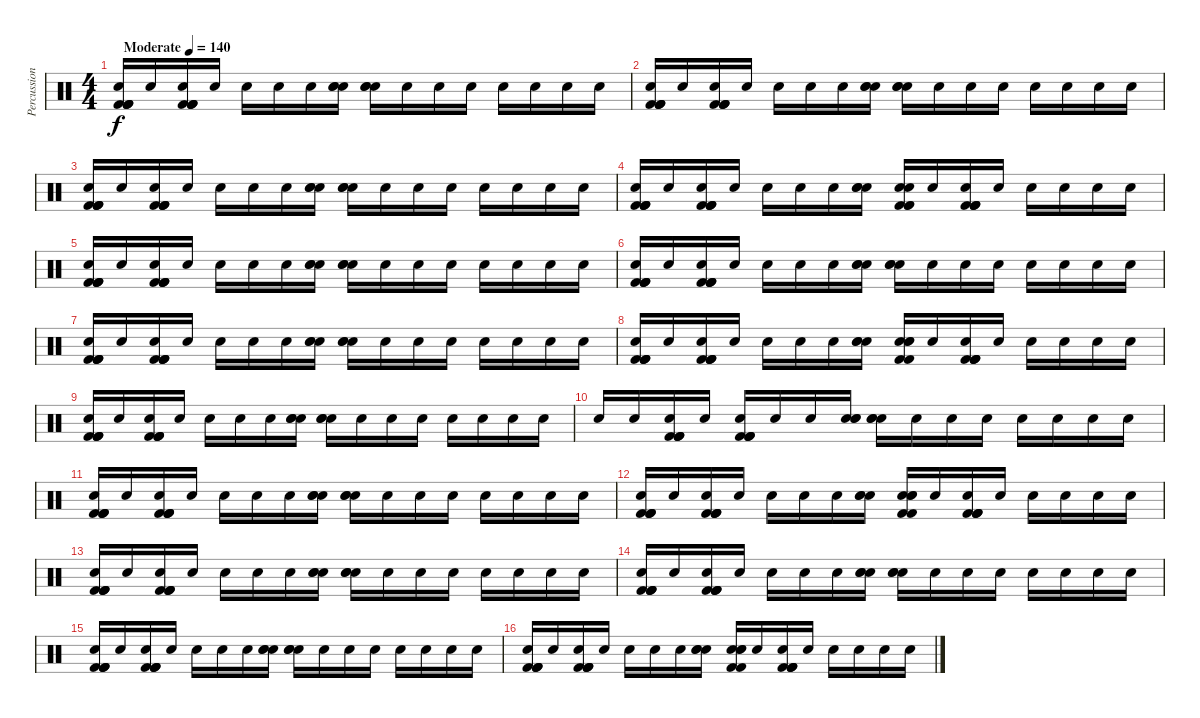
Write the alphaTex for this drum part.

\track ("Percussion" "Percussion") {instrument percussion}
\staff {score}
\articulation defaults
\ts (4 4)
\tempo (140 "Moderate")
\clef neutral
\ks c
("Kick (hit) 2" "Kick (hit) 2" "Kick (hit) 2" "Snare (hit) 2" "Kick (hit) 2").16{dy f volume 8} "Snare (hit) 2".16 ("Kick (hit) 2" "Kick (hit) 2" "Kick (hit) 2" "Snare (hit) 2" "Kick (hit) 2").16 "Snare (hit) 2".16 "Snare (hit) 2".16 "Snare (hit) 2".16 "Snare (hit) 2".16 ("Electric Snare (hit)" "Snare (hit) 2" "Snare (hit) 2").16 ("Electric Snare (hit)" "Snare (hit) 2" "Snare (hit) 2").16 "Snare (hit) 2".16 "Snare (hit) 2".16 "Snare (hit) 2".16 "Snare (hit) 2".16 "Snare (hit) 2".16 "Snare (hit) 2".16 "Snare (hit) 2".16 |
("Kick (hit) 2" "Kick (hit) 2" "Kick (hit) 2" "Snare (hit) 2" "Kick (hit) 2").16 "Snare (hit) 2".16 ("Kick (hit) 2" "Kick (hit) 2" "Kick (hit) 2" "Snare (hit) 2" "Kick (hit) 2").16 "Snare (hit) 2".16 "Snare (hit) 2".16 "Snare (hit) 2".16 "Snare (hit) 2".16 ("Electric Snare (hit)" "Snare (hit) 2" "Snare (hit) 2").16 ("Electric Snare (hit)" "Snare (hit) 2" "Snare (hit) 2").16 "Snare (hit) 2".16 "Snare (hit) 2".16 "Snare (hit) 2".16 "Snare (hit) 2".16 "Snare (hit) 2".16 "Snare (hit) 2".16 "Snare (hit) 2".16 |
("Kick (hit) 2" "Kick (hit) 2" "Kick (hit) 2" "Snare (hit) 2" "Kick (hit) 2").16 "Snare (hit) 2".16 ("Kick (hit) 2" "Kick (hit) 2" "Kick (hit) 2" "Snare (hit) 2" "Kick (hit) 2").16 "Snare (hit) 2".16 "Snare (hit) 2".16 "Snare (hit) 2".16 "Snare (hit) 2".16 ("Electric Snare (hit)" "Snare (hit) 2" "Snare (hit) 2").16 ("Electric Snare (hit)" "Snare (hit) 2" "Snare (hit) 2").16 "Snare (hit) 2".16 "Snare (hit) 2".16 "Snare (hit) 2".16 "Snare (hit) 2".16 "Snare (hit) 2".16 "Snare (hit) 2".16 "Snare (hit) 2".16 |
("Kick (hit) 2" "Kick (hit) 2" "Kick (hit) 2" "Snare (hit) 2" "Kick (hit) 2").16 "Snare (hit) 2".16 ("Kick (hit) 2" "Kick (hit) 2" "Kick (hit) 2" "Snare (hit) 2" "Kick (hit) 2").16 "Snare (hit) 2".16 "Snare (hit) 2".16 "Snare (hit) 2".16 "Snare (hit) 2".16 ("Electric Snare (hit)" "Snare (hit) 2" "Snare (hit) 2").16 ("Electric Snare (hit)" "Kick (hit) 2" "Kick (hit) 2" "Snare (hit) 2" "Kick (hit) 2").16 "Snare (hit) 2".16 ("Kick (hit) 2" "Kick (hit) 2" "Kick (hit) 2" "Snare (hit) 2" "Kick (hit) 2").16 "Snare (hit) 2".16 "Snare (hit) 2".16 "Snare (hit) 2".16 "Snare (hit) 2".16 "Snare (hit) 2".16 |
("Kick (hit) 2" "Kick (hit) 2" "Kick (hit) 2" "Snare (hit) 2" "Kick (hit) 2").16 "Snare (hit) 2".16 ("Kick (hit) 2" "Kick (hit) 2" "Kick (hit) 2" "Snare (hit) 2" "Kick (hit) 2").16 "Snare (hit) 2".16 "Snare (hit) 2".16 "Snare (hit) 2".16 "Snare (hit) 2".16 ("Electric Snare (hit)" "Snare (hit) 2" "Snare (hit) 2").16 ("Electric Snare (hit)" "Snare (hit) 2" "Snare (hit) 2").16 "Snare (hit) 2".16 "Snare (hit) 2".16 "Snare (hit) 2".16 "Snare (hit) 2".16 "Snare (hit) 2".16 "Snare (hit) 2".16 "Snare (hit) 2".16 |
("Kick (hit) 2" "Kick (hit) 2" "Kick (hit) 2" "Snare (hit) 2" "Kick (hit) 2").16 "Snare (hit) 2".16 ("Kick (hit) 2" "Kick (hit) 2" "Kick (hit) 2" "Snare (hit) 2" "Kick (hit) 2").16 "Snare (hit) 2".16 "Snare (hit) 2".16 "Snare (hit) 2".16 "Snare (hit) 2".16 ("Electric Snare (hit)" "Snare (hit) 2" "Snare (hit) 2").16 ("Electric Snare (hit)" "Snare (hit) 2" "Snare (hit) 2").16 "Snare (hit) 2".16 "Snare (hit) 2".16 "Snare (hit) 2".16 "Snare (hit) 2".16 "Snare (hit) 2".16 "Snare (hit) 2".16 "Snare (hit) 2".16 |
("Kick (hit) 2" "Kick (hit) 2" "Kick (hit) 2" "Snare (hit) 2" "Kick (hit) 2").16 "Snare (hit) 2".16 ("Kick (hit) 2" "Kick (hit) 2" "Kick (hit) 2" "Snare (hit) 2" "Kick (hit) 2").16 "Snare (hit) 2".16 "Snare (hit) 2".16 "Snare (hit) 2".16 "Snare (hit) 2".16 ("Electric Snare (hit)" "Snare (hit) 2" "Snare (hit) 2").16 ("Electric Snare (hit)" "Snare (hit) 2" "Snare (hit) 2").16 "Snare (hit) 2".16 "Snare (hit) 2".16 "Snare (hit) 2".16 "Snare (hit) 2".16 "Snare (hit) 2".16 "Snare (hit) 2".16 "Snare (hit) 2".16 |
("Kick (hit) 2" "Kick (hit) 2" "Kick (hit) 2" "Snare (hit) 2" "Kick (hit) 2").16 "Snare (hit) 2".16 ("Kick (hit) 2" "Kick (hit) 2" "Kick (hit) 2" "Snare (hit) 2" "Kick (hit) 2").16 "Snare (hit) 2".16 "Snare (hit) 2".16 "Snare (hit) 2".16 "Snare (hit) 2".16 ("Electric Snare (hit)" "Snare (hit) 2" "Snare (hit) 2").16 ("Electric Snare (hit)" "Electric Snare (hit)" "Kick (hit) 2" "Snare (hit) 2" "Kick (hit) 2").16 "Snare (hit) 2".16 ("Kick (hit) 2" "Kick (hit) 2" "Kick (hit) 2" "Snare (hit) 2" "Kick (hit) 2").16 "Snare (hit) 2".16 "Snare (hit) 2".16 "Snare (hit) 2".16 "Snare (hit) 2".16 "Snare (hit) 2".16 |
("Kick (hit) 2" "Kick (hit) 2" "Kick (hit) 2" "Snare (hit) 2" "Kick (hit) 2").16 "Snare (hit) 2".16 ("Kick (hit) 2" "Kick (hit) 2" "Kick (hit) 2" "Snare (hit) 2" "Kick (hit) 2").16 "Snare (hit) 2".16 "Snare (hit) 2".16 "Snare (hit) 2".16 "Snare (hit) 2".16 ("Electric Snare (hit)" "Snare (hit) 2" "Snare (hit) 2").16 ("Electric Snare (hit)" "Snare (hit) 2" "Snare (hit) 2").16 "Snare (hit) 2".16 "Snare (hit) 2".16 "Snare (hit) 2".16 "Snare (hit) 2".16 "Snare (hit) 2".16 "Snare (hit) 2".16 "Snare (hit) 2".16 |
"Snare (hit) 2".16 "Snare (hit) 2".16 ("Kick (hit) 2" "Kick (hit) 2" "Kick (hit) 2" "Snare (hit) 2" "Kick (hit) 2").16 "Snare (hit) 2".16 ("Kick (hit) 2" "Kick (hit) 2" "Kick (hit) 2" "Snare (hit) 2" "Kick (hit) 2").16 "Snare (hit) 2".16 "Snare (hit) 2".16 ("Electric Snare (hit)" "Snare (hit) 2" "Snare (hit) 2").16 ("Electric Snare (hit)" "Snare (hit) 2" "Snare (hit) 2").16 "Snare (hit) 2".16 "Snare (hit) 2".16 "Snare (hit) 2".16 "Snare (hit) 2".16 "Snare (hit) 2".16 "Snare (hit) 2".16 "Snare (hit) 2".16 |
("Kick (hit) 2" "Kick (hit) 2" "Kick (hit) 2" "Snare (hit) 2" "Kick (hit) 2").16 "Snare (hit) 2".16 ("Kick (hit) 2" "Kick (hit) 2" "Kick (hit) 2" "Snare (hit) 2" "Kick (hit) 2").16 "Snare (hit) 2".16 "Snare (hit) 2".16 "Snare (hit) 2".16 "Snare (hit) 2".16 ("Electric Snare (hit)" "Snare (hit) 2" "Snare (hit) 2").16 ("Electric Snare (hit)" "Snare (hit) 2" "Snare (hit) 2").16 "Snare (hit) 2".16 "Snare (hit) 2".16 "Snare (hit) 2".16 "Snare (hit) 2".16 "Snare (hit) 2".16 "Snare (hit) 2".16 "Snare (hit) 2".16 |
("Kick (hit) 2" "Kick (hit) 2" "Kick (hit) 2" "Snare (hit) 2" "Kick (hit) 2").16 "Snare (hit) 2".16 ("Kick (hit) 2" "Kick (hit) 2" "Kick (hit) 2" "Snare (hit) 2" "Kick (hit) 2").16 "Snare (hit) 2".16 "Snare (hit) 2".16 "Snare (hit) 2".16 "Snare (hit) 2".16 ("Electric Snare (hit)" "Snare (hit) 2" "Snare (hit) 2").16 ("Electric Snare (hit)" "Electric Snare (hit)" "Kick (hit) 2" "Snare (hit) 2" "Kick (hit) 2").16 "Snare (hit) 2".16 ("Kick (hit) 2" "Kick (hit) 2" "Kick (hit) 2" "Snare (hit) 2" "Kick (hit) 2").16 "Snare (hit) 2".16 "Snare (hit) 2".16 "Snare (hit) 2".16 "Snare (hit) 2".16 "Snare (hit) 2".16 |
("Kick (hit) 2" "Kick (hit) 2" "Kick (hit) 2" "Snare (hit) 2" "Kick (hit) 2").16 "Snare (hit) 2".16 ("Kick (hit) 2" "Kick (hit) 2" "Kick (hit) 2" "Snare (hit) 2" "Kick (hit) 2").16 "Snare (hit) 2".16 "Snare (hit) 2".16 "Snare (hit) 2".16 "Snare (hit) 2".16 ("Electric Snare (hit)" "Snare (hit) 2" "Snare (hit) 2").16 ("Electric Snare (hit)" "Snare (hit) 2" "Snare (hit) 2").16 "Snare (hit) 2".16 "Snare (hit) 2".16 "Snare (hit) 2".16 "Snare (hit) 2".16 "Snare (hit) 2".16 "Snare (hit) 2".16 "Snare (hit) 2".16 |
("Kick (hit) 2" "Kick (hit) 2" "Kick (hit) 2" "Snare (hit) 2" "Kick (hit) 2").16 "Snare (hit) 2".16 ("Kick (hit) 2" "Kick (hit) 2" "Kick (hit) 2" "Snare (hit) 2" "Kick (hit) 2").16 "Snare (hit) 2".16 "Snare (hit) 2".16 "Snare (hit) 2".16 "Snare (hit) 2".16 ("Electric Snare (hit)" "Snare (hit) 2" "Snare (hit) 2").16 ("Electric Snare (hit)" "Snare (hit) 2" "Snare (hit) 2").16 "Snare (hit) 2".16 "Snare (hit) 2".16 "Snare (hit) 2".16 "Snare (hit) 2".16 "Snare (hit) 2".16 "Snare (hit) 2".16 "Snare (hit) 2".16 |
("Kick (hit) 2" "Kick (hit) 2" "Kick (hit) 2" "Snare (hit) 2" "Kick (hit) 2").16 "Snare (hit) 2".16 ("Kick (hit) 2" "Kick (hit) 2" "Kick (hit) 2" "Snare (hit) 2" "Kick (hit) 2").16 "Snare (hit) 2".16 "Snare (hit) 2".16 "Snare (hit) 2".16 "Snare (hit) 2".16 ("Electric Snare (hit)" "Snare (hit) 2" "Snare (hit) 2").16 ("Electric Snare (hit)" "Snare (hit) 2" "Snare (hit) 2").16 "Snare (hit) 2".16 "Snare (hit) 2".16 "Snare (hit) 2".16 "Snare (hit) 2".16 "Snare (hit) 2".16 "Snare (hit) 2".16 "Snare (hit) 2".16 |
("Kick (hit) 2" "Kick (hit) 2" "Kick (hit) 2" "Snare (hit) 2" "Kick (hit) 2").16 "Snare (hit) 2".16 ("Kick (hit) 2" "Kick (hit) 2" "Kick (hit) 2" "Snare (hit) 2" "Kick (hit) 2").16 "Snare (hit) 2".16 "Snare (hit) 2".16 "Snare (hit) 2".16 "Snare (hit) 2".16 ("Electric Snare (hit)" "Snare (hit) 2" "Snare (hit) 2").16 ("Electric Snare (hit)" "Electric Snare (hit)" "Kick (hit) 2" "Snare (hit) 2" "Kick (hit) 2").16 "Snare (hit) 2".16 ("Kick (hit) 2" "Kick (hit) 2" "Kick (hit) 2" "Snare (hit) 2" "Kick (hit) 2").16 "Snare (hit) 2".16 "Snare (hit) 2".16 "Snare (hit) 2".16 "Snare (hit) 2".16 "Snare (hit) 2".16
